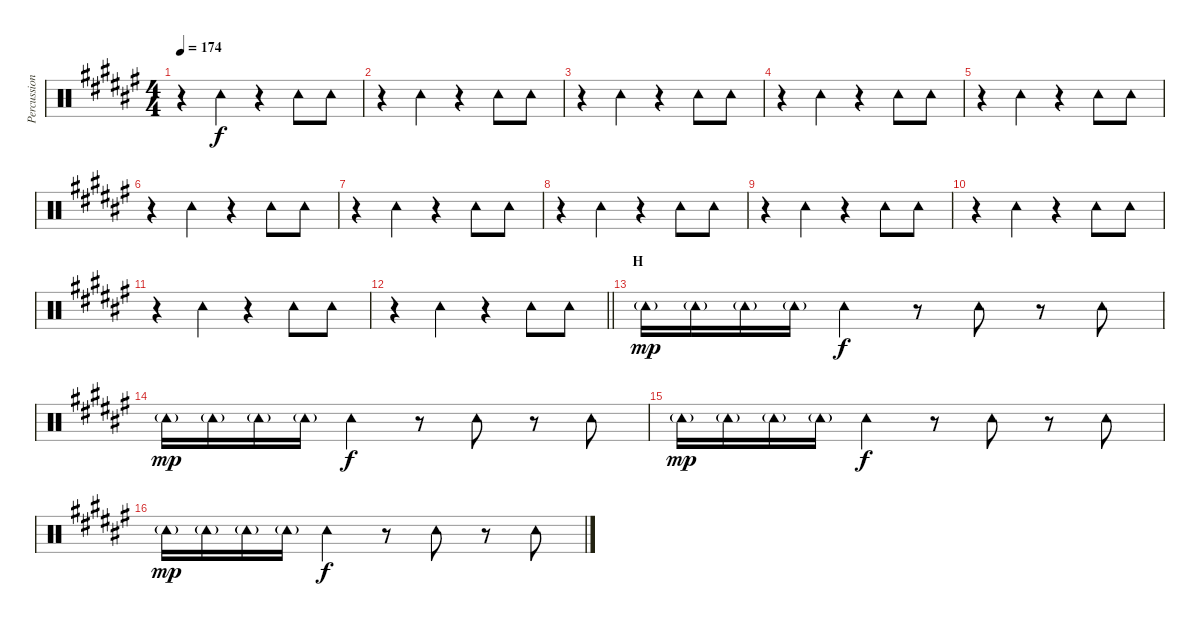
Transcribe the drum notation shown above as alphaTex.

\track ("Percussion II" "Percussion") {instrument percussion}
\staff {score}
\articulation defaults
\ts (4 4)
\tempo 174
\clef neutral
\ks f#
r.4{dy f} "Tambourine (hit)".4 r.4 "Tambourine (hit)".8 "Tambourine (hit)".8 |
r.4 "Tambourine (hit)".4 r.4 "Tambourine (hit)".8 "Tambourine (hit)".8 |
r.4 "Tambourine (hit)".4 r.4 "Tambourine (hit)".8 "Tambourine (hit)".8 |
r.4 "Tambourine (hit)".4 r.4 "Tambourine (hit)".8 "Tambourine (hit)".8 |
r.4 "Tambourine (hit)".4 r.4 "Tambourine (hit)".8 "Tambourine (hit)".8 |
r.4 "Tambourine (hit)".4 r.4 "Tambourine (hit)".8 "Tambourine (hit)".8 |
r.4 "Tambourine (hit)".4 r.4 "Tambourine (hit)".8 "Tambourine (hit)".8 |
r.4 "Tambourine (hit)".4 r.4 "Tambourine (hit)".8 "Tambourine (hit)".8 |
r.4 "Tambourine (hit)".4 r.4 "Tambourine (hit)".8 "Tambourine (hit)".8 |
r.4 "Tambourine (hit)".4 r.4 "Tambourine (hit)".8 "Tambourine (hit)".8 |
r.4 "Tambourine (hit)".4 r.4 "Tambourine (hit)".8 "Tambourine (hit)".8 |
\barLineRight lightlight
r.4 "Tambourine (hit)".4 r.4 "Tambourine (hit)".8 "Tambourine (hit)".8 |
\section ("" "H")
"Tambourine (hit)"{g}.16{dy mp} "Tambourine (hit)"{g}.16 "Tambourine (hit)"{g}.16 "Tambourine (hit)"{g}.16 "Tambourine (hit)".4{dy f} r.8 "Tambourine (hit)".8 r.8 "Tambourine (hit)".8 |
"Tambourine (hit)"{g}.16{dy mp} "Tambourine (hit)"{g}.16 "Tambourine (hit)"{g}.16 "Tambourine (hit)"{g}.16 "Tambourine (hit)".4{dy f} r.8 "Tambourine (hit)".8 r.8 "Tambourine (hit)".8 |
"Tambourine (hit)"{g}.16{dy mp} "Tambourine (hit)"{g}.16 "Tambourine (hit)"{g}.16 "Tambourine (hit)"{g}.16 "Tambourine (hit)".4{dy f} r.8 "Tambourine (hit)".8 r.8 "Tambourine (hit)".8 |
"Tambourine (hit)"{g}.16{dy mp} "Tambourine (hit)"{g}.16 "Tambourine (hit)"{g}.16 "Tambourine (hit)"{g}.16 "Tambourine (hit)".4{dy f} r.8 "Tambourine (hit)".8 r.8 "Tambourine (hit)".8
